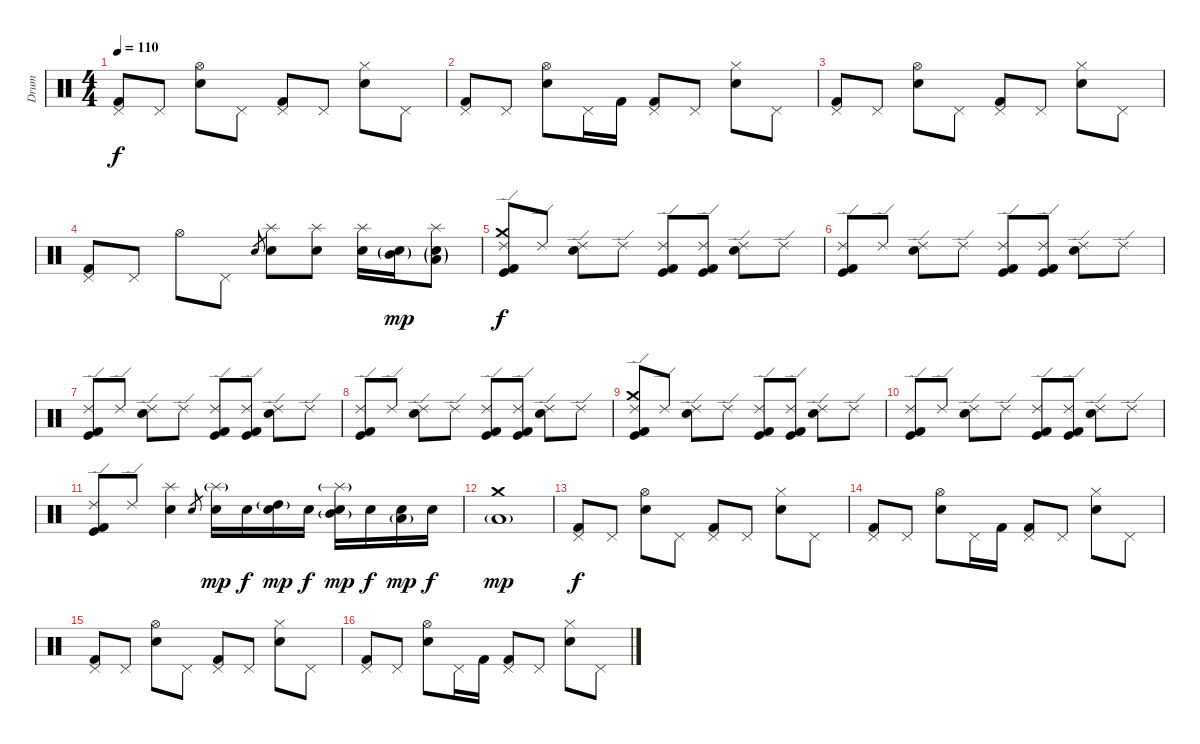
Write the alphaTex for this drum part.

\track ("Drum" "Drum") {instrument percussion}
\staff {score}
\articulation defaults
\ts (4 4)
\tempo 110
\clef neutral
\ks c
("Pedal Hi-Hat (hit)" "Kick (hit) 2").8{dy f} "Pedal Hi-Hat (hit)".8 ("Hi-Hat (open)" "Snare (hit) 2").8 "Pedal Hi-Hat (hit)".8 ("Pedal Hi-Hat (hit)" "Kick (hit) 2").8 "Pedal Hi-Hat (hit)".8 ("Hi-Hat (closed)" "Snare (hit) 2").8 "Pedal Hi-Hat (hit)".8 |
("Pedal Hi-Hat (hit)" "Kick (hit) 2").8 "Pedal Hi-Hat (hit)".8 ("Hi-Hat (open)" "Snare (hit) 2").8 "Pedal Hi-Hat (hit)".16 "Kick (hit) 2".16 ("Pedal Hi-Hat (hit)" "Kick (hit) 2").8 "Pedal Hi-Hat (hit)".8 ("Hi-Hat (closed)" "Snare (hit) 2").8 "Pedal Hi-Hat (hit)".8 |
("Pedal Hi-Hat (hit)" "Kick (hit) 2").8 "Pedal Hi-Hat (hit)".8 ("Hi-Hat (open)" "Snare (hit) 2").8 "Pedal Hi-Hat (hit)".8 ("Pedal Hi-Hat (hit)" "Kick (hit) 2").8 "Pedal Hi-Hat (hit)".8 ("Hi-Hat (closed)" "Snare (hit) 2").8 "Pedal Hi-Hat (hit)".8 |
("Pedal Hi-Hat (hit)" "Kick (hit) 2").8 "Pedal Hi-Hat (hit)".8 "Hi-Hat (open)".8 "Pedal Hi-Hat (hit)".8 "Electric Snare (hit)"{sl}.8{gr} ("Splash (hit)" "Electric Snare (hit)").8 ("Splash (hit)" "Electric Snare (hit)").8 ("Splash (hit)" "Electric Snare (hit)").16 ("Electric Snare (hit)"{g} "Mid Tom (hit)"{g}).16{dy mp} ("Splash (hit)" "Electric Snare (hit)"{g} "Low Tom (hit)"{g}).8 |
("Ride (edge) 2" "Crash medium (hit)" "Kick (hit)" "Kick (hit) 2").8{dy f} "Ride (edge) 2".8 ("Ride (edge) 2" "Electric Snare (hit)").8 "Ride (edge) 2".8 ("Ride (edge) 2" "Kick (hit)" "Kick (hit) 2").8 ("Ride (edge) 2" "Kick (hit)" "Kick (hit) 2").8 ("Ride (edge) 2" "Electric Snare (hit)").8 "Ride (edge) 2".8 |
("Ride (edge) 2" "Kick (hit)" "Kick (hit) 2").8 "Ride (edge) 2".8 ("Ride (edge) 2" "Electric Snare (hit)").8 "Ride (edge) 2".8 ("Ride (edge) 2" "Kick (hit)" "Kick (hit) 2").8 ("Ride (edge) 2" "Kick (hit)" "Kick (hit) 2").8 ("Ride (edge) 2" "Electric Snare (hit)").8 "Ride (edge) 2".8 |
("Ride (edge) 2" "Kick (hit)" "Kick (hit) 2").8 "Ride (edge) 2".8 ("Ride (edge) 2" "Electric Snare (hit)").8 "Ride (edge) 2".8 ("Ride (edge) 2" "Kick (hit)" "Kick (hit) 2").8 ("Ride (edge) 2" "Kick (hit)" "Kick (hit) 2").8 ("Ride (edge) 2" "Electric Snare (hit)").8 "Ride (edge) 2".8 |
("Ride (edge) 2" "Kick (hit)" "Kick (hit) 2").8 "Ride (edge) 2".8 ("Ride (edge) 2" "Electric Snare (hit)").8 "Ride (edge) 2".8 ("Ride (edge) 2" "Kick (hit)" "Kick (hit) 2").8 ("Ride (edge) 2" "Kick (hit)" "Kick (hit) 2").8 ("Ride (edge) 2" "Electric Snare (hit)").8 "Ride (edge) 2".8 |
("Ride (edge) 2" "Crash medium (hit)" "Kick (hit)" "Kick (hit) 2").8 "Ride (edge) 2".8 ("Ride (edge) 2" "Electric Snare (hit)").8 "Ride (edge) 2".8 ("Ride (edge) 2" "Kick (hit)" "Kick (hit) 2").8 ("Ride (edge) 2" "Kick (hit)" "Kick (hit) 2").8 ("Ride (edge) 2" "Electric Snare (hit)").8 "Ride (edge) 2".8 |
("Ride (edge) 2" "Kick (hit)" "Kick (hit) 2").8 "Ride (edge) 2".8 ("Ride (edge) 2" "Electric Snare (hit)").8 "Ride (edge) 2".8 ("Ride (edge) 2" "Kick (hit)" "Kick (hit) 2").8 ("Ride (edge) 2" "Kick (hit)" "Kick (hit) 2").8 ("Ride (edge) 2" "Electric Snare (hit)").8 "Ride (edge) 2".8 |
("Ride (edge) 2" "Kick (hit)" "Kick (hit) 2").8 "Ride (edge) 2".8 ("Splash (hit)" "Electric Snare (hit)").4 "Electric Snare (hit)"{sl}.8{gr} ("Splash (hit)"{g} "Electric Snare (hit)").16{dy mp} "Electric Snare (hit)".16{dy f} ("Electric Snare (hit)" "High Tom (hit)"{g}).16{dy mp} "Electric Snare (hit)".16{dy f} ("Splash (hit)"{g} "Electric Snare (hit)" "Mid Tom (hit)"{g}).16{dy mp} "Electric Snare (hit)".16{dy f} ("Electric Snare (hit)" "Low Tom (hit)"{g}).16{dy mp} "Electric Snare (hit)".16{dy f} |
("Crash medium (hit)" "Low Floor Tom (hit)"{g}).1{dy mp} |
("Pedal Hi-Hat (hit)" "Kick (hit) 2").8{dy f} "Pedal Hi-Hat (hit)".8 ("Hi-Hat (open)" "Snare (hit) 2").8 "Pedal Hi-Hat (hit)".8 ("Pedal Hi-Hat (hit)" "Kick (hit) 2").8 "Pedal Hi-Hat (hit)".8 ("Hi-Hat (closed)" "Snare (hit) 2").8 "Pedal Hi-Hat (hit)".8 |
("Pedal Hi-Hat (hit)" "Kick (hit) 2").8 "Pedal Hi-Hat (hit)".8 ("Hi-Hat (open)" "Snare (hit) 2").8 "Pedal Hi-Hat (hit)".16 "Kick (hit) 2".16 ("Pedal Hi-Hat (hit)" "Kick (hit) 2").8 "Pedal Hi-Hat (hit)".8 ("Hi-Hat (closed)" "Snare (hit) 2").8 "Pedal Hi-Hat (hit)".8 |
("Pedal Hi-Hat (hit)" "Kick (hit) 2").8 "Pedal Hi-Hat (hit)".8 ("Hi-Hat (open)" "Snare (hit) 2").8 "Pedal Hi-Hat (hit)".8 ("Pedal Hi-Hat (hit)" "Kick (hit) 2").8 "Pedal Hi-Hat (hit)".8 ("Hi-Hat (closed)" "Snare (hit) 2").8 "Pedal Hi-Hat (hit)".8 |
("Pedal Hi-Hat (hit)" "Kick (hit) 2").8 "Pedal Hi-Hat (hit)".8 ("Hi-Hat (open)" "Snare (hit) 2").8 "Pedal Hi-Hat (hit)".16 "Kick (hit) 2".16 ("Pedal Hi-Hat (hit)" "Kick (hit) 2").8 "Pedal Hi-Hat (hit)".8 ("Hi-Hat (closed)" "Snare (hit) 2").8 "Pedal Hi-Hat (hit)".8
